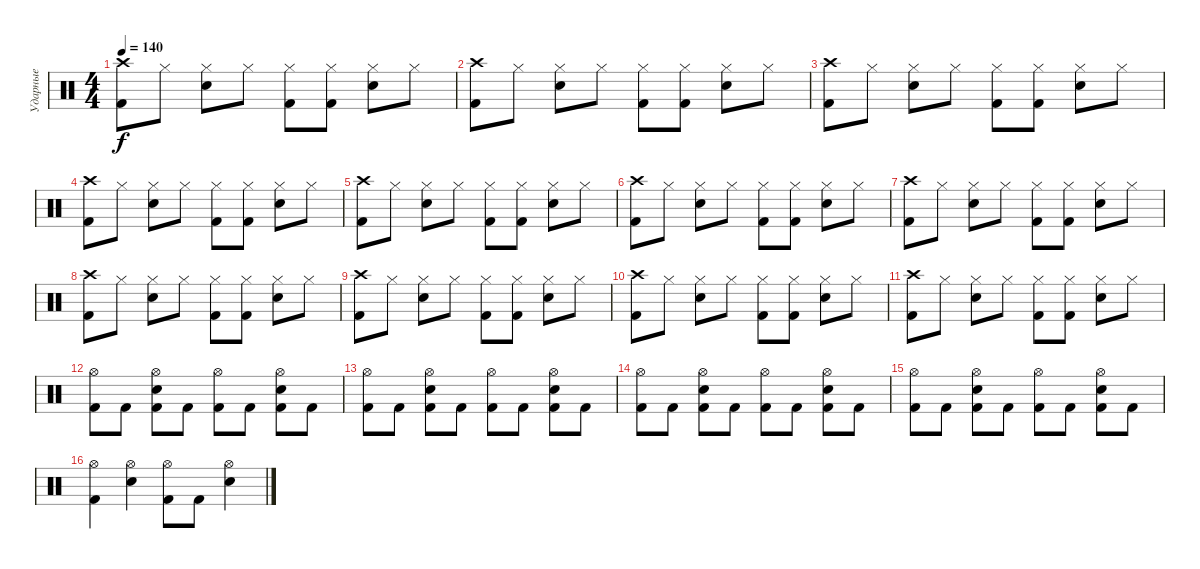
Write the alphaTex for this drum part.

\track ("Ударные" "Ударные") {instrument percussion}
\staff {score}
\articulation defaults
\ts (4 4)
\tempo 140
\clef neutral
\ks c
("Kick (hit) 2" "Crash high (hit)").8{dy f} "Hi-Hat (closed)".8 ("Snare (hit) 2" "Hi-Hat (closed)").8 "Hi-Hat (closed)".8 ("Kick (hit) 2" "Hi-Hat (closed)").8 ("Kick (hit) 2" "Hi-Hat (closed)").8 ("Snare (hit) 2" "Hi-Hat (closed)").8 "Hi-Hat (closed)".8 |
("Kick (hit) 2" "Crash high (hit)").8 "Hi-Hat (closed)".8 ("Snare (hit) 2" "Hi-Hat (closed)").8 "Hi-Hat (closed)".8 ("Kick (hit) 2" "Hi-Hat (closed)").8 ("Kick (hit) 2" "Hi-Hat (closed)").8 ("Snare (hit) 2" "Hi-Hat (closed)").8 "Hi-Hat (closed)".8 |
("Kick (hit) 2" "Crash high (hit)").8 "Hi-Hat (closed)".8 ("Snare (hit) 2" "Hi-Hat (closed)").8 "Hi-Hat (closed)".8 ("Kick (hit) 2" "Hi-Hat (closed)").8 ("Kick (hit) 2" "Hi-Hat (closed)").8 ("Snare (hit) 2" "Hi-Hat (closed)").8 "Hi-Hat (closed)".8 |
("Kick (hit) 2" "Crash high (hit)").8 "Hi-Hat (closed)".8 ("Snare (hit) 2" "Hi-Hat (closed)").8 "Hi-Hat (closed)".8 ("Kick (hit) 2" "Hi-Hat (closed)").8 ("Kick (hit) 2" "Hi-Hat (closed)").8 ("Snare (hit) 2" "Hi-Hat (closed)").8 "Hi-Hat (closed)".8 |
("Kick (hit) 2" "Crash high (hit)").8 "Hi-Hat (closed)".8 ("Snare (hit) 2" "Hi-Hat (closed)").8 "Hi-Hat (closed)".8 ("Kick (hit) 2" "Hi-Hat (closed)").8 ("Kick (hit) 2" "Hi-Hat (closed)").8 ("Snare (hit) 2" "Hi-Hat (closed)").8 "Hi-Hat (closed)".8 |
("Kick (hit) 2" "Crash high (hit)").8 "Hi-Hat (closed)".8 ("Snare (hit) 2" "Hi-Hat (closed)").8 "Hi-Hat (closed)".8 ("Kick (hit) 2" "Hi-Hat (closed)").8 ("Kick (hit) 2" "Hi-Hat (closed)").8 ("Snare (hit) 2" "Hi-Hat (closed)").8 "Hi-Hat (closed)".8 |
("Kick (hit) 2" "Crash high (hit)").8 "Hi-Hat (closed)".8 ("Snare (hit) 2" "Hi-Hat (closed)").8 "Hi-Hat (closed)".8 ("Kick (hit) 2" "Hi-Hat (closed)").8 ("Kick (hit) 2" "Hi-Hat (closed)").8 ("Snare (hit) 2" "Hi-Hat (closed)").8 "Hi-Hat (closed)".8 |
("Kick (hit) 2" "Crash high (hit)").8 "Hi-Hat (closed)".8 ("Snare (hit) 2" "Hi-Hat (closed)").8 "Hi-Hat (closed)".8 ("Kick (hit) 2" "Hi-Hat (closed)").8 ("Kick (hit) 2" "Hi-Hat (closed)").8 ("Snare (hit) 2" "Hi-Hat (closed)").8 "Hi-Hat (closed)".8 |
("Kick (hit) 2" "Crash high (hit)").8 "Hi-Hat (closed)".8 ("Snare (hit) 2" "Hi-Hat (closed)").8 "Hi-Hat (closed)".8 ("Kick (hit) 2" "Hi-Hat (closed)").8 ("Kick (hit) 2" "Hi-Hat (closed)").8 ("Snare (hit) 2" "Hi-Hat (closed)").8 "Hi-Hat (closed)".8 |
("Kick (hit) 2" "Crash high (hit)").8 "Hi-Hat (closed)".8 ("Snare (hit) 2" "Hi-Hat (closed)").8 "Hi-Hat (closed)".8 ("Kick (hit) 2" "Hi-Hat (closed)").8 ("Kick (hit) 2" "Hi-Hat (closed)").8 ("Snare (hit) 2" "Hi-Hat (closed)").8 "Hi-Hat (closed)".8 |
("Kick (hit) 2" "Crash high (hit)").8 "Hi-Hat (closed)".8 ("Snare (hit) 2" "Hi-Hat (closed)").8 "Hi-Hat (closed)".8 ("Kick (hit) 2" "Hi-Hat (closed)").8 ("Kick (hit) 2" "Hi-Hat (closed)").8 ("Snare (hit) 2" "Hi-Hat (closed)").8 "Hi-Hat (closed)".8 |
("Kick (hit) 2" "Hi-Hat (open)").8 "Kick (hit) 2".8 ("Kick (hit) 2" "Snare (hit) 2" "Hi-Hat (open)").8 "Kick (hit) 2".8 ("Kick (hit) 2" "Hi-Hat (open)").8 "Kick (hit) 2".8 ("Kick (hit) 2" "Snare (hit) 2" "Hi-Hat (open)").8 "Kick (hit) 2".8 |
("Kick (hit) 2" "Hi-Hat (open)").8 "Kick (hit) 2".8 ("Kick (hit) 2" "Snare (hit) 2" "Hi-Hat (open)").8 "Kick (hit) 2".8 ("Kick (hit) 2" "Hi-Hat (open)").8 "Kick (hit) 2".8 ("Kick (hit) 2" "Snare (hit) 2" "Hi-Hat (open)").8 "Kick (hit) 2".8 |
("Kick (hit) 2" "Hi-Hat (open)").8 "Kick (hit) 2".8 ("Kick (hit) 2" "Snare (hit) 2" "Hi-Hat (open)").8 "Kick (hit) 2".8 ("Kick (hit) 2" "Hi-Hat (open)").8 "Kick (hit) 2".8 ("Kick (hit) 2" "Snare (hit) 2" "Hi-Hat (open)").8 "Kick (hit) 2".8 |
("Kick (hit) 2" "Hi-Hat (open)").8 "Kick (hit) 2".8 ("Kick (hit) 2" "Snare (hit) 2" "Hi-Hat (open)").8 "Kick (hit) 2".8 ("Kick (hit) 2" "Hi-Hat (open)").8 "Kick (hit) 2".8 ("Kick (hit) 2" "Snare (hit) 2" "Hi-Hat (open)").8 "Kick (hit) 2".8 |
("Kick (hit) 2" "Hi-Hat (open)").4 ("Snare (hit) 2" "Hi-Hat (open)").4 ("Kick (hit) 2" "Hi-Hat (open)").8 "Kick (hit) 2".8 ("Snare (hit) 2" "Hi-Hat (open)").4
